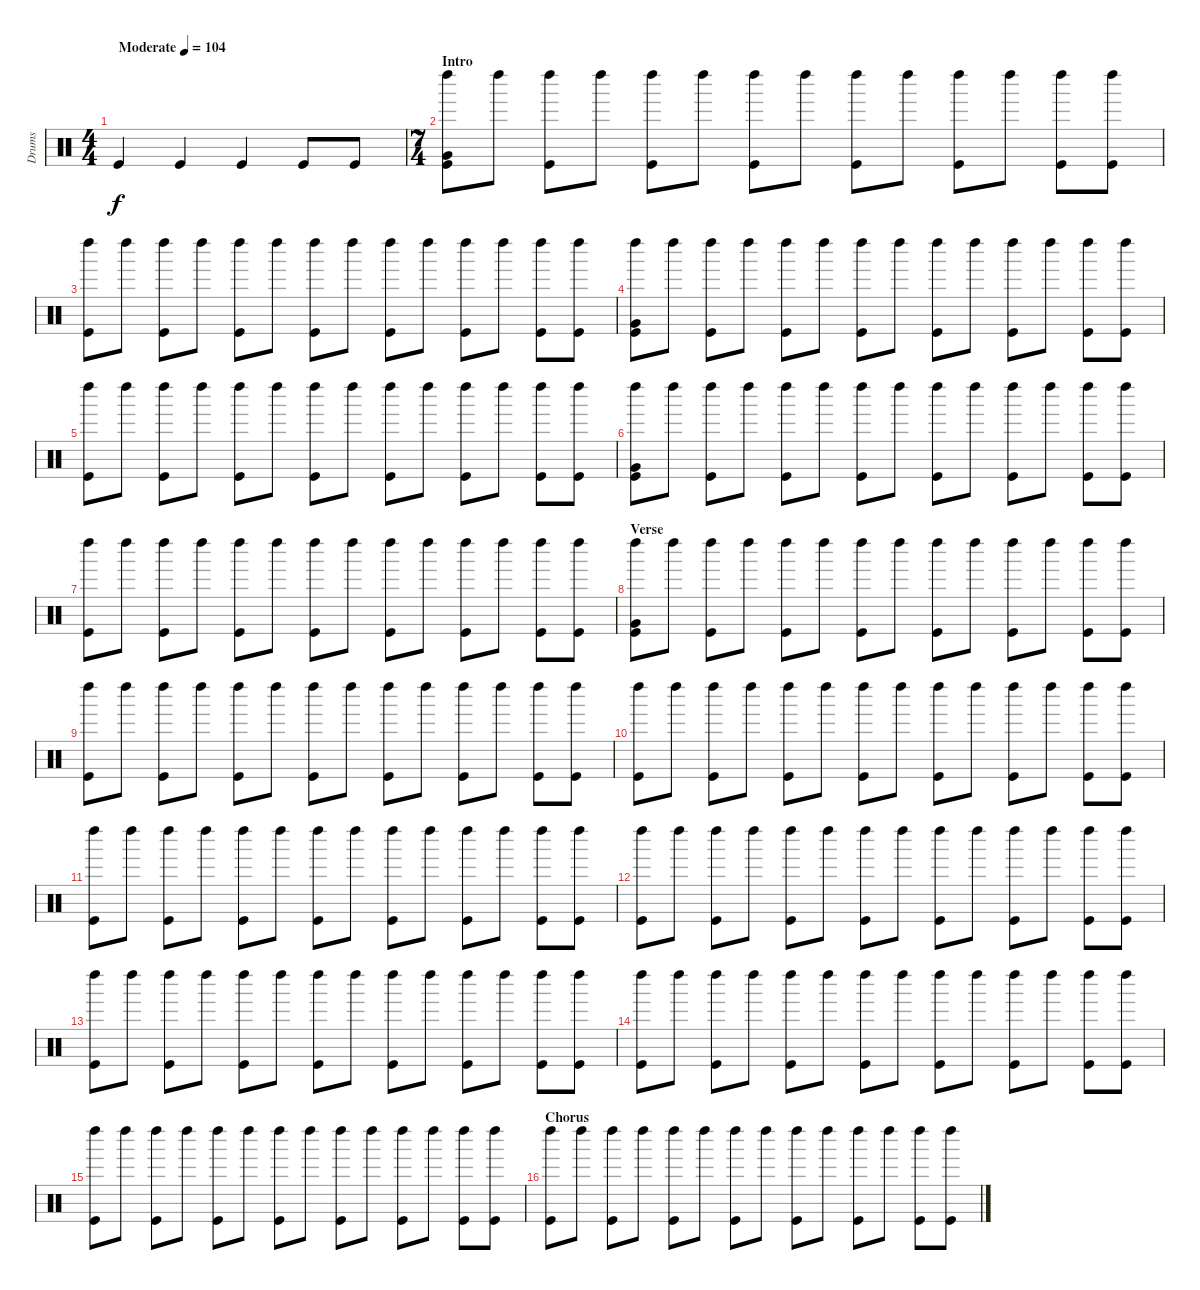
\track ("Drums" "Drums") {instrument percussion}
\staff {score}
\articulation defaults
\ts (4 4)
\tempo (104 "Moderate")
\clef neutral
\ks c "Kick (hit)".4{dy f} "Kick (hit)".4 "Kick (hit)".4 "Kick (hit)".8 "Kick (hit)".8
|
\ts (7 4)
\section ("" "Intro")
("Left Maraca (hit)" "Very Low Tom (hit)" "Kick (hit)").8 "Left Maraca (hit)".8 ("Left Maraca (hit)" "Kick (hit)").8 "Left Maraca (hit)".8 ("Left Maraca (hit)" "Kick (hit)").8 "Left Maraca (hit)".8 ("Left Maraca (hit)" "Kick (hit)").8 "Left Maraca (hit)".8 ("Left Maraca (hit)" "Kick (hit)").8 "Left Maraca (hit)".8 ("Left Maraca (hit)" "Kick (hit)").8 "Left Maraca (hit)".8 ("Left Maraca (hit)" "Kick (hit)").8 ("Left Maraca (hit)" "Kick (hit)").8 |
("Left Maraca (hit)" "Kick (hit)").8 "Left Maraca (hit)".8 ("Left Maraca (hit)" "Kick (hit)").8 "Left Maraca (hit)".8 ("Left Maraca (hit)" "Kick (hit)").8 "Left Maraca (hit)".8 ("Left Maraca (hit)" "Kick (hit)").8 "Left Maraca (hit)".8 ("Left Maraca (hit)" "Kick (hit)").8 "Left Maraca (hit)".8 ("Left Maraca (hit)" "Kick (hit)").8 "Left Maraca (hit)".8 ("Left Maraca (hit)" "Kick (hit)").8 ("Left Maraca (hit)" "Kick (hit)").8 |
("Left Maraca (hit)" "Very Low Tom (hit)" "Kick (hit)").8 "Left Maraca (hit)".8 ("Left Maraca (hit)" "Kick (hit)").8 "Left Maraca (hit)".8 ("Left Maraca (hit)" "Kick (hit)").8 "Left Maraca (hit)".8 ("Left Maraca (hit)" "Kick (hit)").8 "Left Maraca (hit)".8 ("Left Maraca (hit)" "Kick (hit)").8 "Left Maraca (hit)".8 ("Left Maraca (hit)" "Kick (hit)").8 "Left Maraca (hit)".8 ("Left Maraca (hit)" "Kick (hit)").8 ("Left Maraca (hit)" "Kick (hit)").8 |
("Left Maraca (hit)" "Kick (hit)").8 "Left Maraca (hit)".8 ("Left Maraca (hit)" "Kick (hit)").8 "Left Maraca (hit)".8 ("Left Maraca (hit)" "Kick (hit)").8 "Left Maraca (hit)".8 ("Left Maraca (hit)" "Kick (hit)").8 "Left Maraca (hit)".8 ("Left Maraca (hit)" "Kick (hit)").8 "Left Maraca (hit)".8 ("Left Maraca (hit)" "Kick (hit)").8 "Left Maraca (hit)".8 ("Left Maraca (hit)" "Kick (hit)").8 ("Left Maraca (hit)" "Kick (hit)").8 |
("Left Maraca (hit)" "Very Low Tom (hit)" "Kick (hit)").8 "Left Maraca (hit)".8 ("Left Maraca (hit)" "Kick (hit)").8 "Left Maraca (hit)".8 ("Left Maraca (hit)" "Kick (hit)").8 "Left Maraca (hit)".8 ("Left Maraca (hit)" "Kick (hit)").8 "Left Maraca (hit)".8 ("Left Maraca (hit)" "Kick (hit)").8 "Left Maraca (hit)".8 ("Left Maraca (hit)" "Kick (hit)").8 "Left Maraca (hit)".8 ("Left Maraca (hit)" "Kick (hit)").8 ("Left Maraca (hit)" "Kick (hit)").8 |
("Left Maraca (hit)" "Kick (hit)").8 "Left Maraca (hit)".8 ("Left Maraca (hit)" "Kick (hit)").8 "Left Maraca (hit)".8 ("Left Maraca (hit)" "Kick (hit)").8 "Left Maraca (hit)".8 ("Left Maraca (hit)" "Kick (hit)").8 "Left Maraca (hit)".8 ("Left Maraca (hit)" "Kick (hit)").8 "Left Maraca (hit)".8 ("Left Maraca (hit)" "Kick (hit)").8 "Left Maraca (hit)".8 ("Left Maraca (hit)" "Kick (hit)").8 ("Left Maraca (hit)" "Kick (hit)").8 |
\section ("" "Verse")
("Left Maraca (hit)" "Very Low Tom (hit)" "Kick (hit)").8 "Left Maraca (hit)".8 ("Left Maraca (hit)" "Kick (hit)").8 "Left Maraca (hit)".8 ("Left Maraca (hit)" "Kick (hit)").8 "Left Maraca (hit)".8 ("Left Maraca (hit)" "Kick (hit)").8 "Left Maraca (hit)".8 ("Left Maraca (hit)" "Kick (hit)").8 "Left Maraca (hit)".8 ("Left Maraca (hit)" "Kick (hit)").8 "Left Maraca (hit)".8 ("Left Maraca (hit)" "Kick (hit)").8 ("Left Maraca (hit)" "Kick (hit)").8 |
("Left Maraca (hit)" "Kick (hit)").8 "Left Maraca (hit)".8 ("Left Maraca (hit)" "Kick (hit)").8 "Left Maraca (hit)".8 ("Left Maraca (hit)" "Kick (hit)").8 "Left Maraca (hit)".8 ("Left Maraca (hit)" "Kick (hit)").8 "Left Maraca (hit)".8 ("Left Maraca (hit)" "Kick (hit)").8 "Left Maraca (hit)".8 ("Left Maraca (hit)" "Kick (hit)").8 "Left Maraca (hit)".8 ("Left Maraca (hit)" "Kick (hit)").8 ("Left Maraca (hit)" "Kick (hit)").8 |
("Left Maraca (hit)" "Kick (hit)").8 "Left Maraca (hit)".8 ("Left Maraca (hit)" "Kick (hit)").8 "Left Maraca (hit)".8 ("Left Maraca (hit)" "Kick (hit)").8 "Left Maraca (hit)".8 ("Left Maraca (hit)" "Kick (hit)").8 "Left Maraca (hit)".8 ("Left Maraca (hit)" "Kick (hit)").8 "Left Maraca (hit)".8 ("Left Maraca (hit)" "Kick (hit)").8 "Left Maraca (hit)".8 ("Left Maraca (hit)" "Kick (hit)").8 ("Left Maraca (hit)" "Kick (hit)").8 |
("Left Maraca (hit)" "Kick (hit)").8 "Left Maraca (hit)".8 ("Left Maraca (hit)" "Kick (hit)").8 "Left Maraca (hit)".8 ("Left Maraca (hit)" "Kick (hit)").8 "Left Maraca (hit)".8 ("Left Maraca (hit)" "Kick (hit)").8 "Left Maraca (hit)".8 ("Left Maraca (hit)" "Kick (hit)").8 "Left Maraca (hit)".8 ("Left Maraca (hit)" "Kick (hit)").8 "Left Maraca (hit)".8 ("Left Maraca (hit)" "Kick (hit)").8 ("Left Maraca (hit)" "Kick (hit)").8 |
("Left Maraca (hit)" "Kick (hit)").8 "Left Maraca (hit)".8 ("Left Maraca (hit)" "Kick (hit)").8 "Left Maraca (hit)".8 ("Left Maraca (hit)" "Kick (hit)").8 "Left Maraca (hit)".8 ("Left Maraca (hit)" "Kick (hit)").8 "Left Maraca (hit)".8 ("Left Maraca (hit)" "Kick (hit)").8 "Left Maraca (hit)".8 ("Left Maraca (hit)" "Kick (hit)").8 "Left Maraca (hit)".8 ("Left Maraca (hit)" "Kick (hit)").8 ("Left Maraca (hit)" "Kick (hit)").8 |
("Left Maraca (hit)" "Kick (hit)").8 "Left Maraca (hit)".8 ("Left Maraca (hit)" "Kick (hit)").8 "Left Maraca (hit)".8 ("Left Maraca (hit)" "Kick (hit)").8 "Left Maraca (hit)".8 ("Left Maraca (hit)" "Kick (hit)").8 "Left Maraca (hit)".8 ("Left Maraca (hit)" "Kick (hit)").8 "Left Maraca (hit)".8 ("Left Maraca (hit)" "Kick (hit)").8 "Left Maraca (hit)".8 ("Left Maraca (hit)" "Kick (hit)").8 ("Left Maraca (hit)" "Kick (hit)").8 |
("Left Maraca (hit)" "Kick (hit)").8 "Left Maraca (hit)".8 ("Left Maraca (hit)" "Kick (hit)").8 "Left Maraca (hit)".8 ("Left Maraca (hit)" "Kick (hit)").8 "Left Maraca (hit)".8 ("Left Maraca (hit)" "Kick (hit)").8 "Left Maraca (hit)".8 ("Left Maraca (hit)" "Kick (hit)").8 "Left Maraca (hit)".8 ("Left Maraca (hit)" "Kick (hit)").8 "Left Maraca (hit)".8 ("Left Maraca (hit)" "Kick (hit)").8 ("Left Maraca (hit)" "Kick (hit)").8 |
("Left Maraca (hit)" "Kick (hit)").8 "Left Maraca (hit)".8 ("Left Maraca (hit)" "Kick (hit)").8 "Left Maraca (hit)".8 ("Left Maraca (hit)" "Kick (hit)").8 "Left Maraca (hit)".8 ("Left Maraca (hit)" "Kick (hit)").8 "Left Maraca (hit)".8 ("Left Maraca (hit)" "Kick (hit)").8 "Left Maraca (hit)".8 ("Left Maraca (hit)" "Kick (hit)").8 "Left Maraca (hit)".8 ("Left Maraca (hit)" "Kick (hit)").8 ("Left Maraca (hit)" "Kick (hit)").8 |
\section ("" "Chorus")
("Left Maraca (hit)" "Kick (hit)").8 "Left Maraca (hit)".8 ("Left Maraca (hit)" "Kick (hit)").8 "Left Maraca (hit)".8 ("Left Maraca (hit)" "Kick (hit)").8 "Left Maraca (hit)".8 ("Left Maraca (hit)" "Kick (hit)").8 "Left Maraca (hit)".8 ("Left Maraca (hit)" "Kick (hit)").8 "Left Maraca (hit)".8 ("Left Maraca (hit)" "Kick (hit)").8 "Left Maraca (hit)".8 ("Left Maraca (hit)" "Kick (hit)").8 ("Left Maraca (hit)" "Kick (hit)").8
